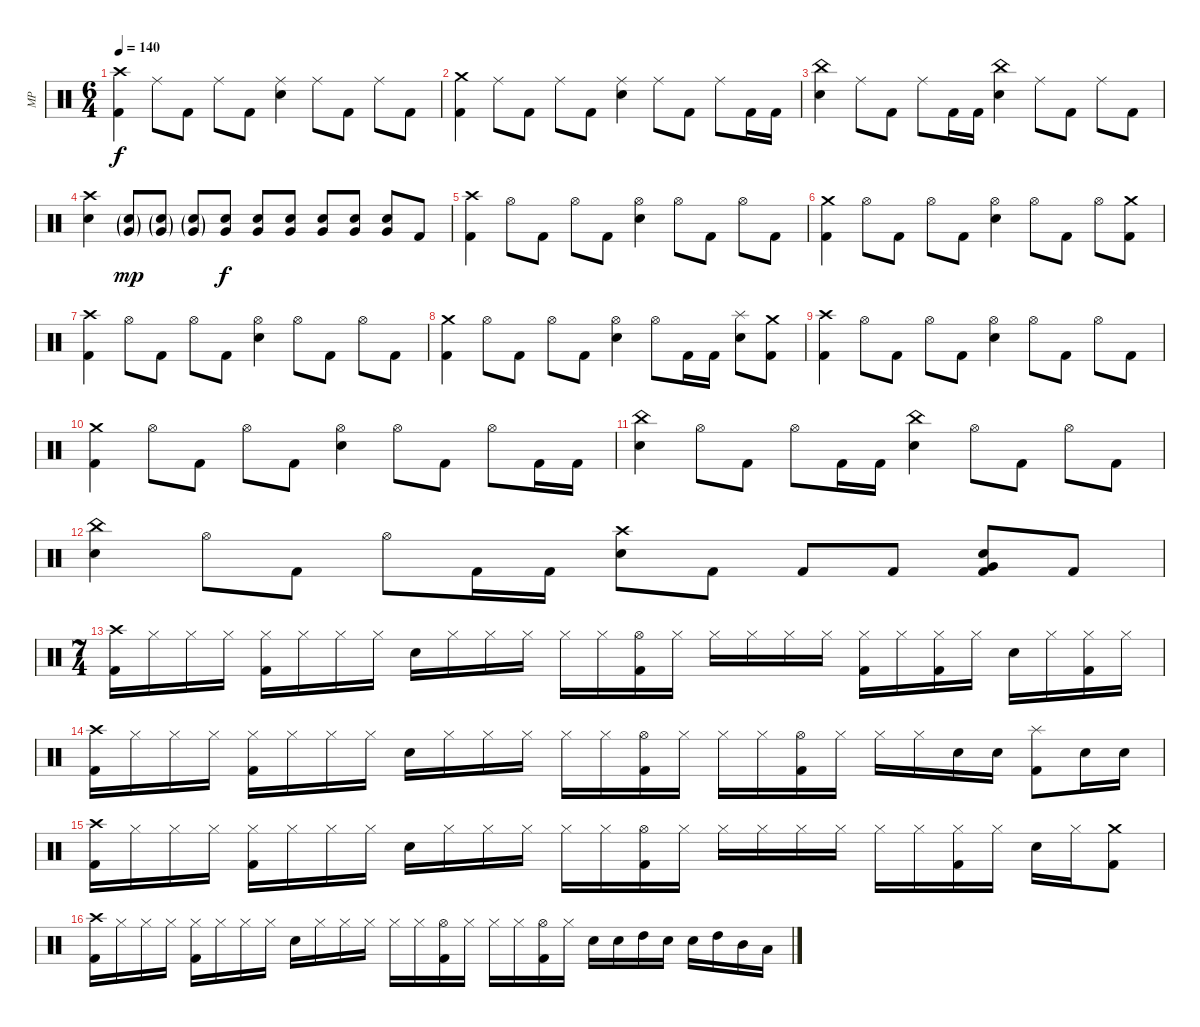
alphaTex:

\track ("MP" "MP") {instrument percussion}
\staff {score}
\articulation defaults
\ts (6 4)
\tempo 140
\clef neutral
\ks c
("Kick (hit) 2" "Crash high (hit)").4{dy f} "Ride (middle)".8 "Kick (hit) 2".8 "Ride (middle)".8 "Kick (hit) 2".8 ("Electric Snare (hit)" "Ride (middle)").4 "Ride (middle)".8 "Kick (hit) 2".8 "Ride (middle)".8 "Kick (hit) 2".8 |
("Kick (hit) 2" "Crash medium (hit)").4 "Ride (middle)".8 "Kick (hit) 2".8 "Ride (middle)".8 "Kick (hit) 2".8 ("Electric Snare (hit)" "Ride (middle)").4 "Ride (middle)".8 "Kick (hit) 2".8 "Ride (middle)".8 "Kick (hit) 2".16 "Kick (hit) 2".16 |
("Electric Snare (hit)" "China (hit)").4 "Ride (middle)".8 "Kick (hit) 2".8 "Ride (middle)".8 "Kick (hit) 2".16 "Kick (hit) 2".16 ("Electric Snare (hit)" "China (hit)").4 "Ride (middle)".8 "Kick (hit) 2".8 "Ride (middle)".8 "Kick (hit) 2".8 |
("Electric Snare (hit)" "Crash high (hit)").4 ("Electric Snare (hit)"{g} "Very Low Tom (hit)"{g}).8{dy mp} ("Electric Snare (hit)"{g} "Very Low Tom (hit)"{g}).8 ("Electric Snare (hit)"{g} "Very Low Tom (hit)"{g}).8 ("Electric Snare (hit)" "Very Low Tom (hit)").8{dy f} ("Electric Snare (hit)" "Very Low Tom (hit)").8 ("Electric Snare (hit)" "Very Low Tom (hit)").8 ("Electric Snare (hit)" "Very Low Tom (hit)").8 ("Electric Snare (hit)" "Very Low Tom (hit)").8 ("Electric Snare (hit)" "Very Low Tom (hit)").8 "Kick (hit) 2".8 |
("Kick (hit) 2" "Crash high (hit)").4 "Hi-Hat (open)".8 "Kick (hit) 2".8 "Hi-Hat (open)".8 "Kick (hit) 2".8 ("Electric Snare (hit)" "Hi-Hat (open)").4 "Hi-Hat (open)".8 "Kick (hit) 2".8 "Hi-Hat (open)".8 "Kick (hit) 2".8 |
("Kick (hit) 2" "Crash medium (hit)").4 "Hi-Hat (open)".8 "Kick (hit) 2".8 "Hi-Hat (open)".8 "Kick (hit) 2".8 ("Electric Snare (hit)" "Hi-Hat (open)").4 "Hi-Hat (open)".8 "Kick (hit) 2".8 "Hi-Hat (open)".8 ("Kick (hit) 2" "Crash medium (hit)").8 |
("Kick (hit) 2" "Crash high (hit)").4 "Hi-Hat (open)".8 "Kick (hit) 2".8 "Hi-Hat (open)".8 "Kick (hit) 2".8 ("Electric Snare (hit)" "Hi-Hat (open)").4 "Hi-Hat (open)".8 "Kick (hit) 2".8 "Hi-Hat (open)".8 "Kick (hit) 2".8 |
("Kick (hit) 2" "Crash medium (hit)").4 "Hi-Hat (open)".8 "Kick (hit) 2".8 "Hi-Hat (open)".8 "Kick (hit) 2".8 ("Electric Snare (hit)" "Hi-Hat (open)").4 "Hi-Hat (open)".8 "Kick (hit) 2".16 "Kick (hit) 2".16 ("Electric Snare (hit)" "Splash (hit)").8 ("Kick (hit) 2" "Crash medium (hit)").8 |
("Kick (hit) 2" "Crash high (hit)").4 "Hi-Hat (open)".8 "Kick (hit) 2".8 "Hi-Hat (open)".8 "Kick (hit) 2".8 ("Electric Snare (hit)" "Hi-Hat (open)").4 "Hi-Hat (open)".8 "Kick (hit) 2".8 "Hi-Hat (open)".8 "Kick (hit) 2".8 |
("Kick (hit) 2" "Crash medium (hit)").4 "Hi-Hat (open)".8 "Kick (hit) 2".8 "Hi-Hat (open)".8 "Kick (hit) 2".8 ("Electric Snare (hit)" "Hi-Hat (open)").4 "Hi-Hat (open)".8 "Kick (hit) 2".8 "Hi-Hat (open)".8 "Kick (hit) 2".16 "Kick (hit) 2".16 |
("Electric Snare (hit)" "China (hit)").4 "Hi-Hat (open)".8 "Kick (hit) 2".8 "Hi-Hat (open)".8 "Kick (hit) 2".16 "Kick (hit) 2".16 ("Electric Snare (hit)" "China (hit)").4 "Hi-Hat (open)".8 "Kick (hit) 2".8 "Hi-Hat (open)".8 "Kick (hit) 2".8 |
("Electric Snare (hit)" "China (hit)").4 "Hi-Hat (open)".8 "Kick (hit) 2".8 "Hi-Hat (open)".8 "Kick (hit) 2".16 "Kick (hit) 2".16 ("Electric Snare (hit)" "Crash high (hit)").8 "Kick (hit) 2".8 "Kick (hit) 2".8 "Kick (hit) 2".8 ("Kick (hit) 2" "Electric Snare (hit)" "Very Low Tom (hit)").8 "Kick (hit) 2".8 |
\ts (7 4)
("Kick (hit) 2" "Crash high (hit)").16 "Hi-Hat (closed)".16 "Hi-Hat (closed)".16 "Hi-Hat (closed)".16 ("Kick (hit) 2" "Hi-Hat (closed)").16 "Hi-Hat (closed)".16 "Hi-Hat (closed)".16 "Hi-Hat (closed)".16 "Electric Snare (hit)".16 "Hi-Hat (closed)".16 "Hi-Hat (closed)".16 "Hi-Hat (closed)".16 "Hi-Hat (closed)".16 "Hi-Hat (closed)".16 ("Kick (hit) 2" "Hi-Hat (open)").16 "Hi-Hat (closed)".16 "Hi-Hat (closed)".16 "Hi-Hat (closed)".16 "Hi-Hat (closed)".16 "Hi-Hat (closed)".16 ("Kick (hit) 2" "Hi-Hat (closed)").16 "Hi-Hat (closed)".16 ("Kick (hit) 2" "Hi-Hat (closed)").16 "Hi-Hat (closed)".16 "Electric Snare (hit)".16 "Hi-Hat (closed)".16 ("Kick (hit) 2" "Hi-Hat (closed)").16 "Hi-Hat (closed)".16 |
("Kick (hit) 2" "Crash high (hit)").16 "Hi-Hat (closed)".16 "Hi-Hat (closed)".16 "Hi-Hat (closed)".16 ("Kick (hit) 2" "Hi-Hat (closed)").16 "Hi-Hat (closed)".16 "Hi-Hat (closed)".16 "Hi-Hat (closed)".16 "Electric Snare (hit)".16 "Hi-Hat (closed)".16 "Hi-Hat (closed)".16 "Hi-Hat (closed)".16 "Hi-Hat (closed)".16 "Hi-Hat (closed)".16 ("Kick (hit) 2" "Hi-Hat (open)").16 "Hi-Hat (closed)".16 "Hi-Hat (closed)".16 "Hi-Hat (closed)".16 ("Kick (hit) 2" "Hi-Hat (open)").16 "Hi-Hat (closed)".16 "Hi-Hat (closed)".16 "Hi-Hat (closed)".16 "Electric Snare (hit)".16 "Electric Snare (hit)".16 ("Kick (hit) 2" "Splash (hit)").8 "Electric Snare (hit)".16 "Electric Snare (hit)".16 |
("Kick (hit) 2" "Crash high (hit)").16 "Hi-Hat (closed)".16 "Hi-Hat (closed)".16 "Hi-Hat (closed)".16 ("Kick (hit) 2" "Hi-Hat (closed)").16 "Hi-Hat (closed)".16 "Hi-Hat (closed)".16 "Hi-Hat (closed)".16 "Electric Snare (hit)".16 "Hi-Hat (closed)".16 "Hi-Hat (closed)".16 "Hi-Hat (closed)".16 "Hi-Hat (closed)".16 "Hi-Hat (closed)".16 ("Kick (hit) 2" "Hi-Hat (open)").16 "Hi-Hat (closed)".16 "Hi-Hat (closed)".16 "Hi-Hat (closed)".16 "Hi-Hat (closed)".16 "Hi-Hat (closed)".16 "Hi-Hat (closed)".16 "Hi-Hat (closed)".16 ("Kick (hit) 2" "Hi-Hat (closed)").16 "Hi-Hat (closed)".16 "Electric Snare (hit)".16 "Hi-Hat (closed)".16 ("Kick (hit) 2" "Crash medium (hit)").8 |
("Kick (hit) 2" "Crash high (hit)").16 "Hi-Hat (closed)".16 "Hi-Hat (closed)".16 "Hi-Hat (closed)".16 ("Kick (hit) 2" "Hi-Hat (closed)").16 "Hi-Hat (closed)".16 "Hi-Hat (closed)".16 "Hi-Hat (closed)".16 "Electric Snare (hit)".16 "Hi-Hat (closed)".16 "Hi-Hat (closed)".16 "Hi-Hat (closed)".16 "Hi-Hat (closed)".16 "Hi-Hat (closed)".16 ("Kick (hit) 2" "Hi-Hat (open)").16 "Hi-Hat (closed)".16 "Hi-Hat (closed)".16 "Hi-Hat (closed)".16 ("Kick (hit) 2" "Hi-Hat (open)").16 "Hi-Hat (closed)".16 "Electric Snare (hit)".16 "Electric Snare (hit)".16 "High Tom (hit)".16 "Electric Snare (hit)".16 "Electric Snare (hit)".16 "High Tom (hit)".16 "Mid Tom (hit)".16 "Low Tom (hit)".16
